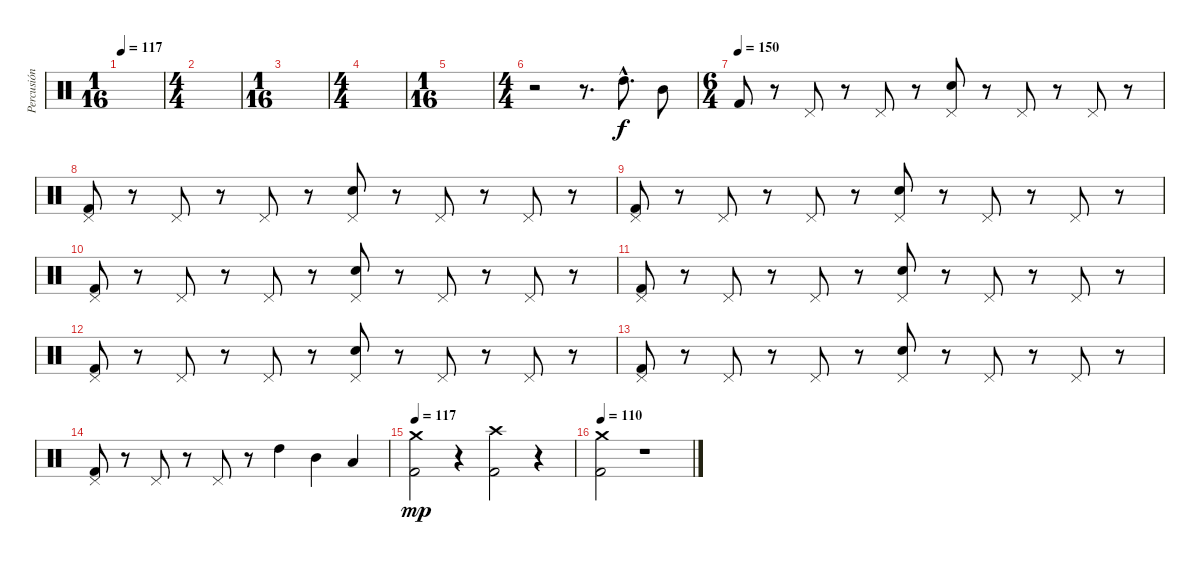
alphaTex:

\track ("Percusión" "Percusión") {instrument percussion}
\staff {score}
\articulation defaults
\ts (1 16)
\tempo 117
\clef neutral
\ks c
|
\ts (4 4)
|
\ts (1 16)
|
\ts (4 4)
|
\ts (1 16)
|
\ts (4 4)
r.2 r.8{d} "High Tom (hit)"{hac}.8{d} "Mid Tom (hit)".8 |
\ts (6 4)
\tempo (150)
"Kick (hit) 2".8 r.8 "Pedal Hi-Hat (hit)".8 r.8 "Pedal Hi-Hat (hit)".8 r.8 ("Pedal Hi-Hat (hit)" "Snare (hit) 2").8 r.8 "Pedal Hi-Hat (hit)".8 r.8 "Pedal Hi-Hat (hit)".8 r.8 |
("Pedal Hi-Hat (hit)" "Kick (hit) 2").8 r.8 "Pedal Hi-Hat (hit)".8 r.8 "Pedal Hi-Hat (hit)".8 r.8 ("Pedal Hi-Hat (hit)" "Snare (hit) 2").8 r.8 "Pedal Hi-Hat (hit)".8 r.8 "Pedal Hi-Hat (hit)".8 r.8 |
("Pedal Hi-Hat (hit)" "Kick (hit) 2").8 r.8 "Pedal Hi-Hat (hit)".8 r.8 "Pedal Hi-Hat (hit)".8 r.8 ("Pedal Hi-Hat (hit)" "Snare (hit) 2").8 r.8 "Pedal Hi-Hat (hit)".8 r.8 "Pedal Hi-Hat (hit)".8 r.8 |
("Pedal Hi-Hat (hit)" "Kick (hit) 2").8 r.8 "Pedal Hi-Hat (hit)".8 r.8 "Pedal Hi-Hat (hit)".8 r.8 ("Pedal Hi-Hat (hit)" "Snare (hit) 2").8 r.8 "Pedal Hi-Hat (hit)".8 r.8 "Pedal Hi-Hat (hit)".8 r.8 |
("Pedal Hi-Hat (hit)" "Kick (hit) 2").8 r.8 "Pedal Hi-Hat (hit)".8 r.8 "Pedal Hi-Hat (hit)".8 r.8 ("Pedal Hi-Hat (hit)" "Snare (hit) 2").8 r.8 "Pedal Hi-Hat (hit)".8 r.8 "Pedal Hi-Hat (hit)".8 r.8 |
("Pedal Hi-Hat (hit)" "Kick (hit) 2").8 r.8 "Pedal Hi-Hat (hit)".8 r.8 "Pedal Hi-Hat (hit)".8 r.8 ("Pedal Hi-Hat (hit)" "Snare (hit) 2").8 r.8 "Pedal Hi-Hat (hit)".8 r.8 "Pedal Hi-Hat (hit)".8 r.8 |
("Pedal Hi-Hat (hit)" "Kick (hit) 2").8 r.8 "Pedal Hi-Hat (hit)".8 r.8 "Pedal Hi-Hat (hit)".8 r.8 ("Pedal Hi-Hat (hit)" "Snare (hit) 2").8 r.8 "Pedal Hi-Hat (hit)".8 r.8 "Pedal Hi-Hat (hit)".8 r.8 |
("Pedal Hi-Hat (hit)" "Kick (hit) 2").8 r.8 "Pedal Hi-Hat (hit)".8 r.8 "Pedal Hi-Hat (hit)".8 r.8 "High Tom (hit)".4 "Mid Tom (hit)".4 "Low Tom (hit)".4 |
\tempo 117
("Crash medium (hit)" "Kick (hit) 2").2{dy mp} r.4 ("Crash high (hit)" "Kick (hit) 2").2 r.4 |
\tempo 110
("Crash medium (hit)" "Kick (hit) 2").2 r.1
